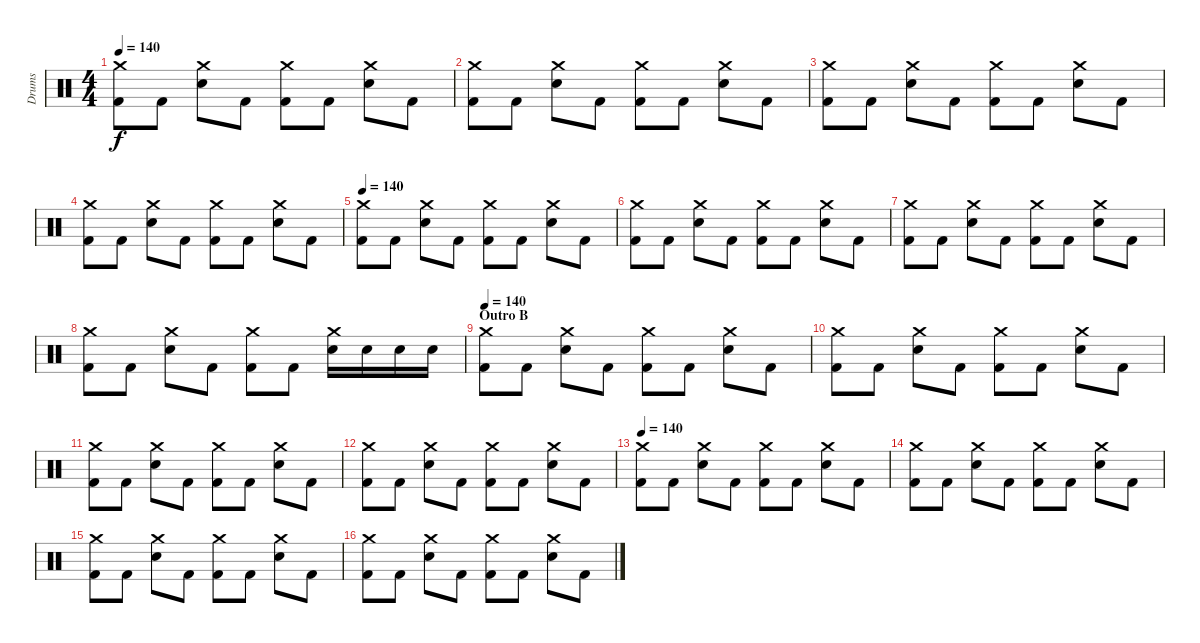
\track ("Drums" "Drums") {instrument percussion}
\staff {score}
\articulation defaults
\ts (4 4)
\tempo 140
\clef neutral
\ks c
("Crash medium (hit)" "Kick (hit) 2").8{dy f} "Kick (hit) 2".8 ("Crash medium (hit)" "Electric Snare (hit)").8 "Kick (hit) 2".8 ("Crash medium (hit)" "Kick (hit) 2").8 "Kick (hit) 2".8 ("Crash medium (hit)" "Electric Snare (hit)").8 "Kick (hit) 2".8 |
("Crash medium (hit)" "Kick (hit) 2").8 "Kick (hit) 2".8 ("Crash medium (hit)" "Electric Snare (hit)").8 "Kick (hit) 2".8 ("Crash medium (hit)" "Kick (hit) 2").8 "Kick (hit) 2".8 ("Crash medium (hit)" "Electric Snare (hit)").8 "Kick (hit) 2".8 |
("Crash medium (hit)" "Kick (hit) 2").8 "Kick (hit) 2".8 ("Crash medium (hit)" "Electric Snare (hit)").8 "Kick (hit) 2".8 ("Crash medium (hit)" "Kick (hit) 2").8 "Kick (hit) 2".8 ("Crash medium (hit)" "Electric Snare (hit)").8 "Kick (hit) 2".8 |
("Crash medium (hit)" "Kick (hit) 2").8 "Kick (hit) 2".8 ("Crash medium (hit)" "Electric Snare (hit)").8 "Kick (hit) 2".8 ("Crash medium (hit)" "Kick (hit) 2").8 "Kick (hit) 2".8 ("Crash medium (hit)" "Electric Snare (hit)").8 "Kick (hit) 2".8 |
\tempo 140
("Crash medium (hit)" "Kick (hit) 2").8 "Kick (hit) 2".8 ("Crash medium (hit)" "Electric Snare (hit)").8 "Kick (hit) 2".8 ("Crash medium (hit)" "Kick (hit) 2").8 "Kick (hit) 2".8 ("Crash medium (hit)" "Electric Snare (hit)").8 "Kick (hit) 2".8 |
("Crash medium (hit)" "Kick (hit) 2").8 "Kick (hit) 2".8 ("Crash medium (hit)" "Electric Snare (hit)").8 "Kick (hit) 2".8 ("Crash medium (hit)" "Kick (hit) 2").8 "Kick (hit) 2".8 ("Crash medium (hit)" "Electric Snare (hit)").8 "Kick (hit) 2".8 |
("Crash medium (hit)" "Kick (hit) 2").8 "Kick (hit) 2".8 ("Crash medium (hit)" "Electric Snare (hit)").8 "Kick (hit) 2".8 ("Crash medium (hit)" "Kick (hit) 2").8 "Kick (hit) 2".8 ("Crash medium (hit)" "Electric Snare (hit)").8 "Kick (hit) 2".8 |
("Crash medium (hit)" "Kick (hit) 2").8 "Kick (hit) 2".8 ("Crash medium (hit)" "Electric Snare (hit)").8 "Kick (hit) 2".8 ("Crash medium (hit)" "Kick (hit) 2").8 "Kick (hit) 2".8 ("Crash medium (hit)" "Electric Snare (hit)").16 "Electric Snare (hit)".16 "Electric Snare (hit)".16 "Electric Snare (hit)".16 |
\section ("" "Outro B")
\tempo 140
("Crash medium (hit)" "Kick (hit) 2").8 "Kick (hit) 2".8 ("Crash medium (hit)" "Electric Snare (hit)").8 "Kick (hit) 2".8 ("Crash medium (hit)" "Kick (hit) 2").8 "Kick (hit) 2".8 ("Crash medium (hit)" "Electric Snare (hit)").8 "Kick (hit) 2".8 |
("Crash medium (hit)" "Kick (hit) 2").8 "Kick (hit) 2".8 ("Crash medium (hit)" "Electric Snare (hit)").8 "Kick (hit) 2".8 ("Crash medium (hit)" "Kick (hit) 2").8 "Kick (hit) 2".8 ("Crash medium (hit)" "Electric Snare (hit)").8 "Kick (hit) 2".8 |
("Crash medium (hit)" "Kick (hit) 2").8 "Kick (hit) 2".8 ("Crash medium (hit)" "Electric Snare (hit)").8 "Kick (hit) 2".8 ("Crash medium (hit)" "Kick (hit) 2").8 "Kick (hit) 2".8 ("Crash medium (hit)" "Electric Snare (hit)").8 "Kick (hit) 2".8 |
("Crash medium (hit)" "Kick (hit) 2").8 "Kick (hit) 2".8 ("Crash medium (hit)" "Electric Snare (hit)").8 "Kick (hit) 2".8 ("Crash medium (hit)" "Kick (hit) 2").8 "Kick (hit) 2".8 ("Crash medium (hit)" "Electric Snare (hit)").8 "Kick (hit) 2".8 |
\tempo 140
("Crash medium (hit)" "Kick (hit) 2").8 "Kick (hit) 2".8 ("Crash medium (hit)" "Electric Snare (hit)").8 "Kick (hit) 2".8 ("Crash medium (hit)" "Kick (hit) 2").8 "Kick (hit) 2".8 ("Crash medium (hit)" "Electric Snare (hit)").8 "Kick (hit) 2".8 |
("Crash medium (hit)" "Kick (hit) 2").8 "Kick (hit) 2".8 ("Crash medium (hit)" "Electric Snare (hit)").8 "Kick (hit) 2".8 ("Crash medium (hit)" "Kick (hit) 2").8 "Kick (hit) 2".8 ("Crash medium (hit)" "Electric Snare (hit)").8 "Kick (hit) 2".8 |
("Crash medium (hit)" "Kick (hit) 2").8 "Kick (hit) 2".8 ("Crash medium (hit)" "Electric Snare (hit)").8 "Kick (hit) 2".8 ("Crash medium (hit)" "Kick (hit) 2").8 "Kick (hit) 2".8 ("Crash medium (hit)" "Electric Snare (hit)").8 "Kick (hit) 2".8 |
("Crash medium (hit)" "Kick (hit) 2").8 "Kick (hit) 2".8 ("Crash medium (hit)" "Electric Snare (hit)").8 "Kick (hit) 2".8 ("Crash medium (hit)" "Kick (hit) 2").8 "Kick (hit) 2".8 ("Crash medium (hit)" "Electric Snare (hit)").8 "Kick (hit) 2".8
